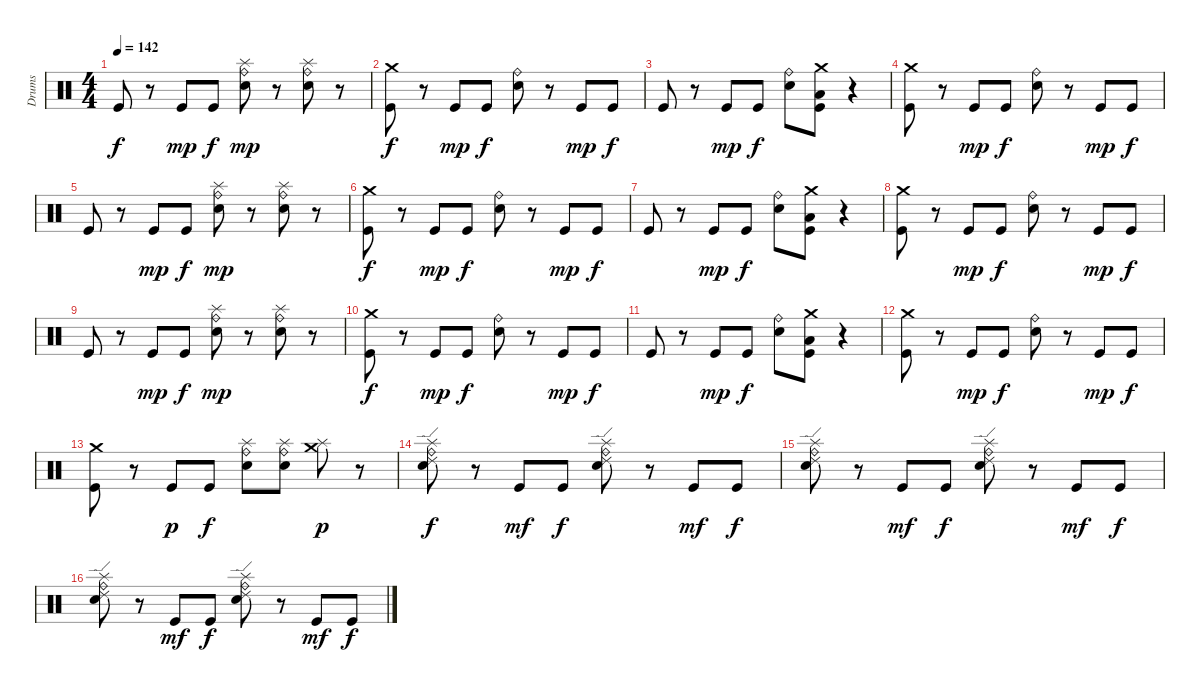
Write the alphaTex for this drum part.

\track ("Drums" "Drums") {instrument percussion}
\staff {score}
\articulation defaults
\ts (4 4)
\tempo 142
\clef neutral
\ks c "Kick (hit)".8{dy f}
r.8 "Kick (hit)".8{dy mp} "Kick (hit)".8{dy f} ("Splash (hit)" "Ride (bell)" "Electric Snare (hit)").8{dy mp} r.8 ("Electric Snare (hit)" "Ride (bell)" "Splash (hit)").8 r.8 |
("Crash medium (hit)" "Kick (hit)").8{dy f} r.8 "Kick (hit)".8{dy mp} "Kick (hit)".8{dy f} ("Ride (bell)" "Electric Snare (hit)").8 r.8 "Kick (hit)".8{dy mp} "Kick (hit)".8{dy f} |
"Kick (hit)".8 r.8 "Kick (hit)".8{dy mp} "Kick (hit)".8{dy f} ("Ride (bell)" "Electric Snare (hit)").8 ("Crash medium (hit)" "Low Tom (hit)" "Kick (hit)").8 r.4 |
("Crash medium (hit)" "Kick (hit)").8 r.8 "Kick (hit)".8{dy mp} "Kick (hit)".8{dy f} ("Ride (bell)" "Electric Snare (hit)").8 r.8 "Kick (hit)".8{dy mp} "Kick (hit)".8{dy f} |
"Kick (hit)".8 r.8 "Kick (hit)".8{dy mp} "Kick (hit)".8{dy f} ("Splash (hit)" "Ride (bell)" "Electric Snare (hit)").8{dy mp} r.8 ("Electric Snare (hit)" "Ride (bell)" "Splash (hit)").8 r.8 |
("Crash medium (hit)" "Kick (hit)").8{dy f} r.8 "Kick (hit)".8{dy mp} "Kick (hit)".8{dy f} ("Ride (bell)" "Electric Snare (hit)").8 r.8 "Kick (hit)".8{dy mp} "Kick (hit)".8{dy f} |
"Kick (hit)".8 r.8 "Kick (hit)".8{dy mp} "Kick (hit)".8{dy f} ("Ride (bell)" "Electric Snare (hit)").8 ("Crash medium (hit)" "Low Tom (hit)" "Kick (hit)").8 r.4 |
("Crash medium (hit)" "Kick (hit)").8 r.8 "Kick (hit)".8{dy mp} "Kick (hit)".8{dy f} ("Ride (bell)" "Electric Snare (hit)").8 r.8 "Kick (hit)".8{dy mp} "Kick (hit)".8{dy f} |
"Kick (hit)".8 r.8 "Kick (hit)".8{dy mp} "Kick (hit)".8{dy f} ("Splash (hit)" "Ride (bell)" "Electric Snare (hit)").8{dy mp} r.8 ("Electric Snare (hit)" "Ride (bell)" "Splash (hit)").8 r.8 |
("Crash medium (hit)" "Kick (hit)").8{dy f} r.8 "Kick (hit)".8{dy mp} "Kick (hit)".8{dy f} ("Ride (bell)" "Electric Snare (hit)").8 r.8 "Kick (hit)".8{dy mp} "Kick (hit)".8{dy f} |
"Kick (hit)".8 r.8 "Kick (hit)".8{dy mp} "Kick (hit)".8{dy f} ("Ride (bell)" "Electric Snare (hit)").8 ("Crash medium (hit)" "Low Tom (hit)" "Kick (hit)").8 r.4 |
("Crash medium (hit)" "Kick (hit)").8 r.8 "Kick (hit)".8{dy mp} "Kick (hit)".8{dy f} ("Ride (bell)" "Electric Snare (hit)").8 r.8 "Kick (hit)".8{dy mp} "Kick (hit)".8{dy f} |
("Crash medium (hit)" "Kick (hit)").8 r.8 "Kick (hit)".8{dy p} "Kick (hit)".8{dy f} ("Splash (hit)" "Ride (bell)" "Electric Snare (hit)").8 ("Splash (hit)" "Ride (bell)" "Electric Snare (hit)").8 ("Crash medium (hit)" "Splash (hit)").8{dy p} r.8 |
("Ride (edge) 2" "Ride (bell)" "Splash (hit)" "Electric Snare (hit)").8{dy f} r.8 "Kick (hit)".8{dy mf} "Kick (hit)".8{dy f} ("Ride (edge) 2" "Electric Snare (hit)" "Splash (hit)" "Ride (bell)").8 r.8 "Kick (hit)".8{dy mf} "Kick (hit)".8{dy f} |
("Ride (edge) 2" "Ride (bell)" "Splash (hit)" "Electric Snare (hit)").8 r.8 "Kick (hit)".8{dy mf} "Kick (hit)".8{dy f} ("Ride (edge) 2" "Electric Snare (hit)" "Splash (hit)" "Ride (bell)").8 r.8 "Kick (hit)".8{dy mf} "Kick (hit)".8{dy f} |
("Ride (edge) 2" "Ride (bell)" "Splash (hit)" "Electric Snare (hit)").8 r.8 "Kick (hit)".8{dy mf} "Kick (hit)".8{dy f} ("Ride (edge) 2" "Electric Snare (hit)" "Splash (hit)" "Ride (bell)").8 r.8 "Kick (hit)".8{dy mf} "Kick (hit)".8{dy f}
